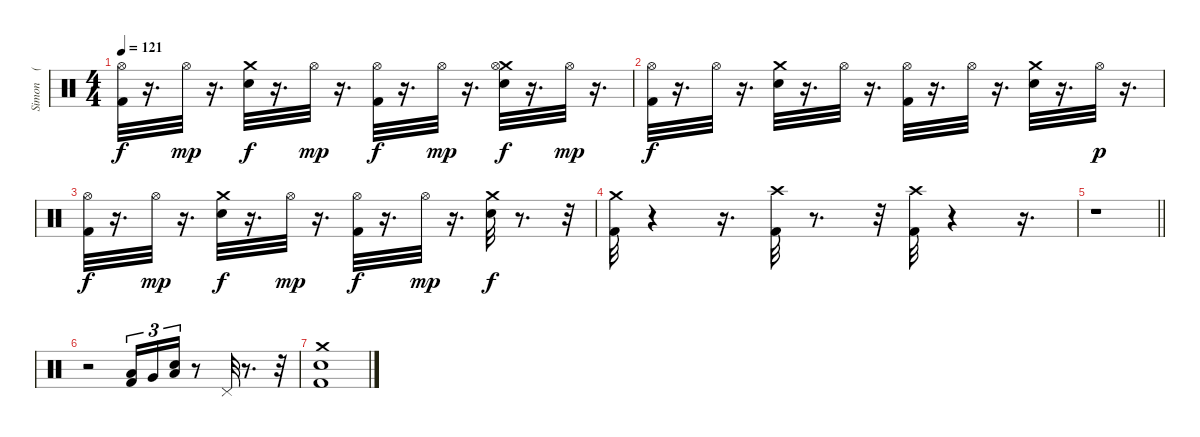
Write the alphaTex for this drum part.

\track ("Simon    (Drums)" "Simon    (") {instrument percussion}
\staff {score}
\articulation defaults
\ts (4 4)
\tempo 121
\clef neutral
\ks c
("Hi-Hat (open)" "Kick (hit) 2").32{dy f} r.16{d} "Hi-Hat (open)".32{dy mp} r.16{d} ("Crash medium (hit)" "Electric Snare (hit)").32{dy f} r.16{d} "Hi-Hat (open)".32{dy mp} r.16{d} ("Hi-Hat (open)" "Kick (hit) 2").32{dy f} r.16{d} "Hi-Hat (open)".32{dy mp} r.16{d} ("Crash medium (hit)" "Hi-Hat (open)" "Electric Snare (hit)").32{dy f} r.16{d} "Hi-Hat (open)".32{dy mp} r.16{d} |
("Hi-Hat (open)" "Kick (hit) 2").32{dy f} r.16{d} "Hi-Hat (open)".32 r.16{d} ("Crash medium (hit)" "Electric Snare (hit)").32 r.16{d} "Hi-Hat (open)".32 r.16{d} ("Hi-Hat (open)" "Kick (hit) 2").32 r.16{d} "Hi-Hat (open)".32 r.16{d} ("Crash medium (hit)" "Electric Snare (hit)").32 r.16{d} "Hi-Hat (open)".32{dy p} r.16{d} |
("Hi-Hat (open)" "Kick (hit) 2").32{dy f} r.16{d} "Hi-Hat (open)".32{dy mp} r.16{d} ("Crash medium (hit)" "Electric Snare (hit)").32{dy f} r.16{d} "Hi-Hat (open)".32{dy mp} r.16{d} ("Hi-Hat (open)" "Kick (hit) 2").32{dy f} r.16{d} "Hi-Hat (open)".32{dy mp} r.16{d} ("Crash medium (hit)" "Electric Snare (hit)").32{dy f} r.8{d} r.32 |
("Crash medium (hit)" "Kick (hit) 2").32 r.4 r.16{d} ("Crash high (hit)" "Kick (hit) 2").32 r.8{d} r.32 ("Crash high (hit)" "Kick (hit) 2").32 r.4 r.16{d} |
\barLineRight lightlight
r.1 |
r.2 ("Kick (hit) 2" "Low Tom (hit)").16{tu (3 2)} "Very Low Tom (hit)".16{tu (3 2)} ("Electric Snare (hit)" "Low Floor Tom (hit)").16{tu (3 2)} r.8 "Pedal Hi-Hat (hit)".32 r.8{d} r.32 |
("Kick (hit) 2" "Electric Snare (hit)" "Crash medium (hit)").1
